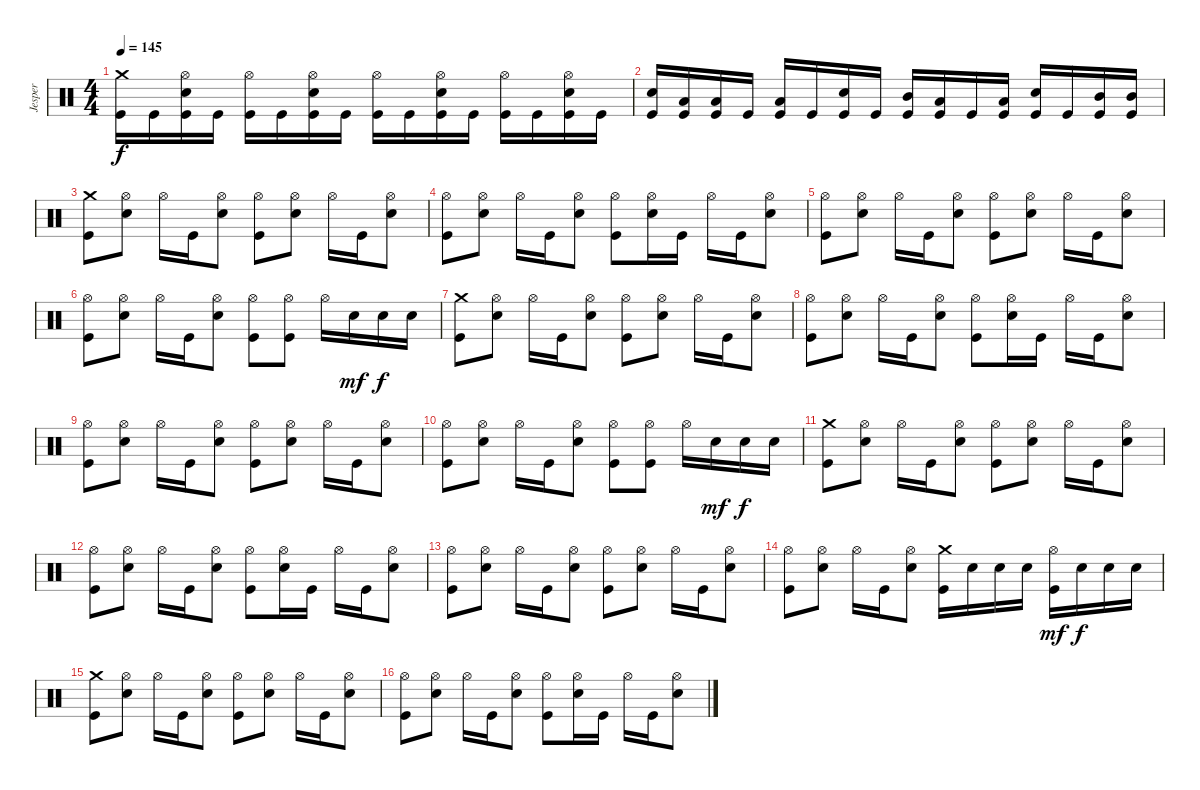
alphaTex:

\track ("Jesper" "Jesper") {instrument percussion}
\staff {score}
\articulation defaults
\ts (4 4)
\tempo 145
\clef neutral
\ks c
("Crash medium (hit)" "Kick (hit)").16{dy f} "Kick (hit)".16 ("Hi-Hat (open)" "Electric Snare (hit)" "Kick (hit)").16 "Kick (hit)".16 ("Hi-Hat (open)" "Kick (hit)").16 "Kick (hit)".16 ("Hi-Hat (open)" "Electric Snare (hit)" "Kick (hit)").16 "Kick (hit)".16 ("Hi-Hat (open)" "Kick (hit)").16 "Kick (hit)".16 ("Hi-Hat (open)" "Electric Snare (hit)" "Kick (hit)").16 "Kick (hit)".16 ("Hi-Hat (open)" "Kick (hit)").16 "Kick (hit)".16 ("Hi-Hat (open)" "Electric Snare (hit)" "Kick (hit)").16 "Kick (hit)".16 |
("Electric Snare (hit)" "Kick (hit)").16 ("Low Tom (hit)" "Kick (hit)").16 ("Low Tom (hit)" "Kick (hit)").16 "Kick (hit)".16 ("Low Tom (hit)" "Kick (hit)").16 "Kick (hit)".16 ("Electric Snare (hit)" "Kick (hit)").16 "Kick (hit)".16 ("Mid Tom (hit)" "Kick (hit)").16 ("Low Tom (hit)" "Kick (hit)").16 "Kick (hit)".16 ("Low Tom (hit)" "Kick (hit)").16 ("Electric Snare (hit)" "Kick (hit)").16 "Kick (hit)".16 ("Mid Tom (hit)" "Kick (hit)").16 ("Mid Tom (hit)" "Kick (hit)").16 |
("Crash medium (hit)" "Kick (hit)").8 ("Hi-Hat (open)" "Electric Snare (hit)").8 "Hi-Hat (open)".16 "Kick (hit)".16 ("Hi-Hat (open)" "Electric Snare (hit)").8 ("Hi-Hat (open)" "Kick (hit)").8 ("Hi-Hat (open)" "Electric Snare (hit)").8 "Hi-Hat (open)".16 "Kick (hit)".16 ("Hi-Hat (open)" "Electric Snare (hit)").8 |
("Hi-Hat (open)" "Kick (hit)").8 ("Hi-Hat (open)" "Electric Snare (hit)").8 "Hi-Hat (open)".16 "Kick (hit)".16 ("Hi-Hat (open)" "Electric Snare (hit)").8 ("Hi-Hat (open)" "Kick (hit)").8 ("Hi-Hat (open)" "Electric Snare (hit)").16 "Kick (hit)".16 "Hi-Hat (open)".16 "Kick (hit)".16 ("Hi-Hat (open)" "Electric Snare (hit)").8 |
("Hi-Hat (open)" "Kick (hit)").8 ("Hi-Hat (open)" "Electric Snare (hit)").8 "Hi-Hat (open)".16 "Kick (hit)".16 ("Hi-Hat (open)" "Electric Snare (hit)").8 ("Hi-Hat (open)" "Kick (hit)").8 ("Hi-Hat (open)" "Electric Snare (hit)").8 "Hi-Hat (open)".16 "Kick (hit)".16 ("Hi-Hat (open)" "Electric Snare (hit)").8 |
("Hi-Hat (open)" "Kick (hit)").8 ("Hi-Hat (open)" "Electric Snare (hit)").8 "Hi-Hat (open)".16 "Kick (hit)".16 ("Hi-Hat (open)" "Electric Snare (hit)").8 ("Hi-Hat (open)" "Kick (hit)").8 ("Hi-Hat (open)" "Kick (hit)").8 "Hi-Hat (open)".16 "Electric Snare (hit)".16{dy mf} "Electric Snare (hit)".16{dy f} "Electric Snare (hit)".16 |
("Crash medium (hit)" "Kick (hit)").8 ("Hi-Hat (open)" "Electric Snare (hit)").8 "Hi-Hat (open)".16 "Kick (hit)".16 ("Hi-Hat (open)" "Electric Snare (hit)").8 ("Hi-Hat (open)" "Kick (hit)").8 ("Hi-Hat (open)" "Electric Snare (hit)").8 "Hi-Hat (open)".16 "Kick (hit)".16 ("Hi-Hat (open)" "Electric Snare (hit)").8 |
("Hi-Hat (open)" "Kick (hit)").8 ("Hi-Hat (open)" "Electric Snare (hit)").8 "Hi-Hat (open)".16 "Kick (hit)".16 ("Hi-Hat (open)" "Electric Snare (hit)").8 ("Hi-Hat (open)" "Kick (hit)").8 ("Hi-Hat (open)" "Electric Snare (hit)").16 "Kick (hit)".16 "Hi-Hat (open)".16 "Kick (hit)".16 ("Hi-Hat (open)" "Electric Snare (hit)").8 |
("Hi-Hat (open)" "Kick (hit)").8 ("Hi-Hat (open)" "Electric Snare (hit)").8 "Hi-Hat (open)".16 "Kick (hit)".16 ("Hi-Hat (open)" "Electric Snare (hit)").8 ("Hi-Hat (open)" "Kick (hit)").8 ("Hi-Hat (open)" "Electric Snare (hit)").8 "Hi-Hat (open)".16 "Kick (hit)".16 ("Hi-Hat (open)" "Electric Snare (hit)").8 |
("Hi-Hat (open)" "Kick (hit)").8 ("Hi-Hat (open)" "Electric Snare (hit)").8 "Hi-Hat (open)".16 "Kick (hit)".16 ("Hi-Hat (open)" "Electric Snare (hit)").8 ("Hi-Hat (open)" "Kick (hit)").8 ("Hi-Hat (open)" "Kick (hit)").8 "Hi-Hat (open)".16 "Electric Snare (hit)".16{dy mf} "Electric Snare (hit)".16{dy f} "Electric Snare (hit)".16 |
("Crash medium (hit)" "Kick (hit)").8 ("Hi-Hat (open)" "Electric Snare (hit)").8 "Hi-Hat (open)".16 "Kick (hit)".16 ("Hi-Hat (open)" "Electric Snare (hit)").8 ("Hi-Hat (open)" "Kick (hit)").8 ("Hi-Hat (open)" "Electric Snare (hit)").8 "Hi-Hat (open)".16 "Kick (hit)".16 ("Hi-Hat (open)" "Electric Snare (hit)").8 |
("Hi-Hat (open)" "Kick (hit)").8 ("Hi-Hat (open)" "Electric Snare (hit)").8 "Hi-Hat (open)".16 "Kick (hit)".16 ("Hi-Hat (open)" "Electric Snare (hit)").8 ("Hi-Hat (open)" "Kick (hit)").8 ("Hi-Hat (open)" "Electric Snare (hit)").16 "Kick (hit)".16 "Hi-Hat (open)".16 "Kick (hit)".16 ("Hi-Hat (open)" "Electric Snare (hit)").8 |
("Hi-Hat (open)" "Kick (hit)").8 ("Hi-Hat (open)" "Electric Snare (hit)").8 "Hi-Hat (open)".16 "Kick (hit)".16 ("Hi-Hat (open)" "Electric Snare (hit)").8 ("Hi-Hat (open)" "Kick (hit)").8 ("Hi-Hat (open)" "Electric Snare (hit)").8 "Hi-Hat (open)".16 "Kick (hit)".16 ("Hi-Hat (open)" "Electric Snare (hit)").8 |
("Hi-Hat (open)" "Kick (hit)").8 ("Hi-Hat (open)" "Electric Snare (hit)").8 "Hi-Hat (open)".16 "Kick (hit)".16 ("Hi-Hat (open)" "Electric Snare (hit)").8 ("Crash medium (hit)" "Kick (hit)").16 "Electric Snare (hit)".16 "Electric Snare (hit)".16 "Electric Snare (hit)".16 ("Hi-Hat (open)" "Kick (hit)").16{dy mf} "Electric Snare (hit)".16{dy f} "Electric Snare (hit)".16 "Electric Snare (hit)".16 |
("Crash medium (hit)" "Kick (hit)").8 ("Hi-Hat (open)" "Electric Snare (hit)").8 "Hi-Hat (open)".16 "Kick (hit)".16 ("Hi-Hat (open)" "Electric Snare (hit)").8 ("Hi-Hat (open)" "Kick (hit)").8 ("Hi-Hat (open)" "Electric Snare (hit)").8 "Hi-Hat (open)".16 "Kick (hit)".16 ("Hi-Hat (open)" "Electric Snare (hit)").8 |
("Hi-Hat (open)" "Kick (hit)").8 ("Hi-Hat (open)" "Electric Snare (hit)").8 "Hi-Hat (open)".16 "Kick (hit)".16 ("Hi-Hat (open)" "Electric Snare (hit)").8 ("Hi-Hat (open)" "Kick (hit)").8 ("Hi-Hat (open)" "Electric Snare (hit)").16 "Kick (hit)".16 "Hi-Hat (open)".16 "Kick (hit)".16 ("Hi-Hat (open)" "Electric Snare (hit)").8
